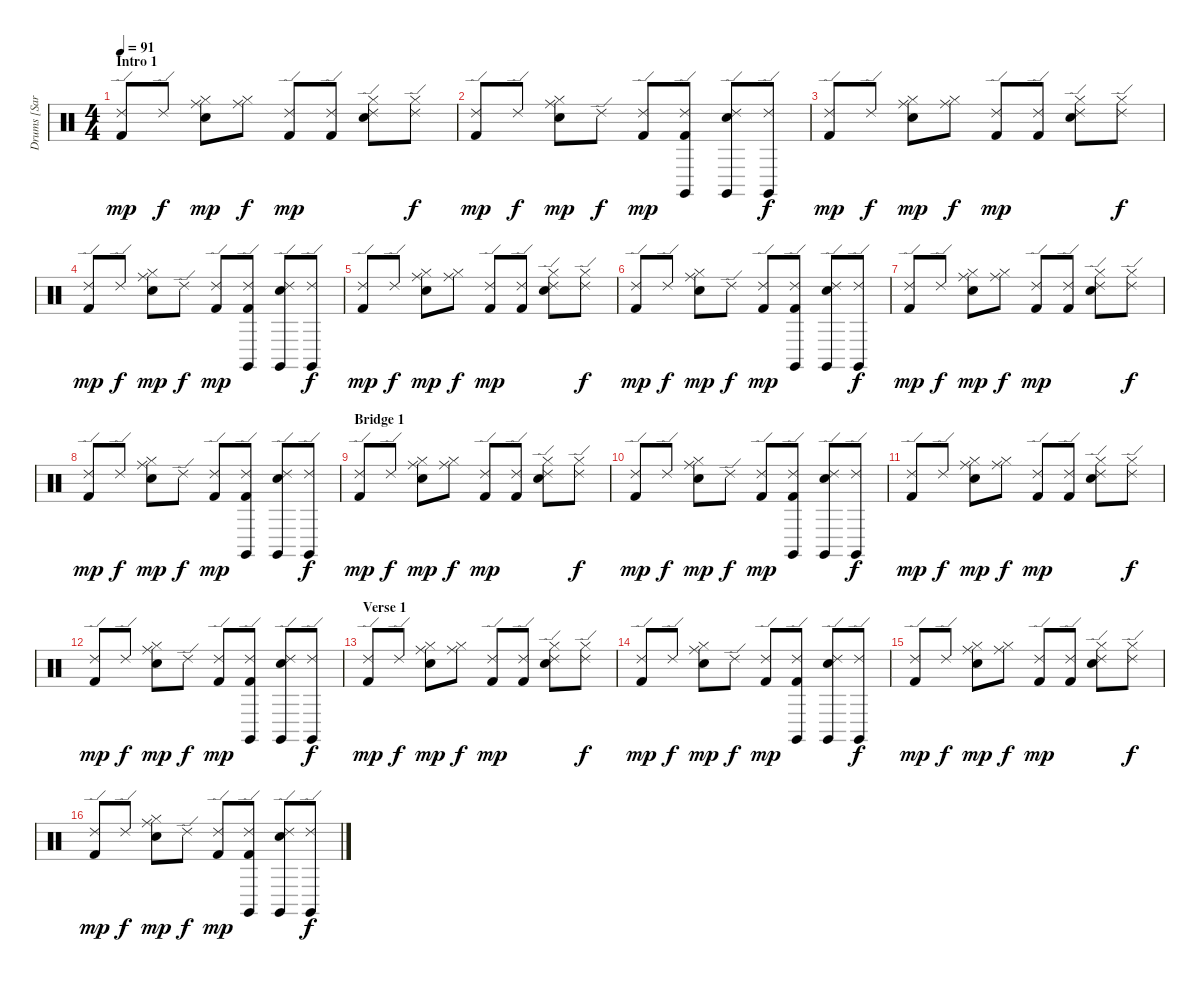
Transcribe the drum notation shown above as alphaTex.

\track ("Drums [Sara Lee Lucas]" "Drums [Sar") {instrument percussion}
\staff {score}
\articulation defaults
\ts (4 4)
\section ("" "Intro 1")
\tempo 91
\clef neutral
\ks c
("Ride (edge) 2" "Kick (hit) 2").8{dy mp} "Ride (edge) 2".8{dy f} ("Ride (middle)" "Hi-Hat (closed)" "Snare (hit) 2").8{dy mp} ("Ride (middle)" "Hi-Hat (closed)").8{dy f} ("Ride (edge) 2" "Kick (hit) 2").8{dy mp} ("Ride (edge) 2" "Kick (hit) 2").8 ("Ride (edge) 2" "Hi-Hat (closed)" "Snare (hit) 2").8 ("Ride (edge) 2" "Hi-Hat (closed)").8{dy f} |
("Ride (edge) 2" "Kick (hit) 2").8{dy mp} "Ride (edge) 2".8{dy f} ("Ride (middle)" "Hi-Hat (closed)" "Snare (hit) 2").8{dy mp} "Ride (edge) 2".8{dy f} ("Ride (edge) 2" "Kick (hit) 2").8{dy mp} ("Ride (edge) 2" "Claves (hit)" "Kick (hit) 2").8 ("Ride (edge) 2" "Claves (hit)" "Snare (hit) 2").8 ("Ride (edge) 2" "Claves (hit)").8{dy f} |
("Ride (edge) 2" "Kick (hit) 2").8{dy mp} "Ride (edge) 2".8{dy f} ("Ride (middle)" "Hi-Hat (closed)" "Snare (hit) 2").8{dy mp} ("Ride (middle)" "Hi-Hat (closed)").8{dy f} ("Ride (edge) 2" "Kick (hit) 2").8{dy mp} ("Ride (edge) 2" "Kick (hit) 2").8 ("Ride (edge) 2" "Hi-Hat (closed)" "Snare (hit) 2").8 ("Ride (edge) 2" "Hi-Hat (closed)").8{dy f} |
("Ride (edge) 2" "Kick (hit) 2").8{dy mp} "Ride (edge) 2".8{dy f} ("Ride (middle)" "Hi-Hat (closed)" "Snare (hit) 2").8{dy mp} "Ride (edge) 2".8{dy f} ("Ride (edge) 2" "Kick (hit) 2").8{dy mp} ("Ride (edge) 2" "Claves (hit)" "Kick (hit) 2").8 ("Ride (edge) 2" "Claves (hit)" "Snare (hit) 2").8 ("Ride (edge) 2" "Claves (hit)").8{dy f} |
("Ride (edge) 2" "Kick (hit) 2").8{dy mp} "Ride (edge) 2".8{dy f} ("Ride (middle)" "Hi-Hat (closed)" "Snare (hit) 2").8{dy mp} ("Ride (middle)" "Hi-Hat (closed)").8{dy f} ("Ride (edge) 2" "Kick (hit) 2").8{dy mp} ("Ride (edge) 2" "Kick (hit) 2").8 ("Ride (edge) 2" "Hi-Hat (closed)" "Snare (hit) 2").8 ("Ride (edge) 2" "Hi-Hat (closed)").8{dy f} |
("Ride (edge) 2" "Kick (hit) 2").8{dy mp} "Ride (edge) 2".8{dy f} ("Ride (middle)" "Hi-Hat (closed)" "Snare (hit) 2").8{dy mp} "Ride (edge) 2".8{dy f} ("Ride (edge) 2" "Kick (hit) 2").8{dy mp} ("Ride (edge) 2" "Claves (hit)" "Kick (hit) 2").8 ("Ride (edge) 2" "Claves (hit)" "Snare (hit) 2").8 ("Ride (edge) 2" "Claves (hit)").8{dy f} |
("Ride (edge) 2" "Kick (hit) 2").8{dy mp} "Ride (edge) 2".8{dy f} ("Ride (middle)" "Hi-Hat (closed)" "Snare (hit) 2").8{dy mp} ("Ride (middle)" "Hi-Hat (closed)").8{dy f} ("Ride (edge) 2" "Kick (hit) 2").8{dy mp} ("Ride (edge) 2" "Kick (hit) 2").8 ("Ride (edge) 2" "Hi-Hat (closed)" "Snare (hit) 2").8 ("Ride (edge) 2" "Hi-Hat (closed)").8{dy f} |
("Ride (edge) 2" "Kick (hit) 2").8{dy mp} "Ride (edge) 2".8{dy f} ("Ride (middle)" "Hi-Hat (closed)" "Snare (hit) 2").8{dy mp} "Ride (edge) 2".8{dy f} ("Ride (edge) 2" "Kick (hit) 2").8{dy mp} ("Ride (edge) 2" "Claves (hit)" "Kick (hit) 2").8 ("Ride (edge) 2" "Claves (hit)" "Snare (hit) 2").8 ("Ride (edge) 2" "Claves (hit)").8{dy f} |
\section ("" "Bridge 1")
("Ride (edge) 2" "Kick (hit) 2").8{dy mp} "Ride (edge) 2".8{dy f} ("Ride (middle)" "Hi-Hat (closed)" "Snare (hit) 2").8{dy mp} ("Ride (middle)" "Hi-Hat (closed)").8{dy f} ("Ride (edge) 2" "Kick (hit) 2").8{dy mp} ("Ride (edge) 2" "Kick (hit) 2").8 ("Ride (edge) 2" "Hi-Hat (closed)" "Snare (hit) 2").8 ("Ride (edge) 2" "Hi-Hat (closed)").8{dy f} |
("Ride (edge) 2" "Kick (hit) 2").8{dy mp} "Ride (edge) 2".8{dy f} ("Ride (middle)" "Hi-Hat (closed)" "Snare (hit) 2").8{dy mp} "Ride (edge) 2".8{dy f} ("Ride (edge) 2" "Kick (hit) 2").8{dy mp} ("Ride (edge) 2" "Claves (hit)" "Kick (hit) 2").8 ("Ride (edge) 2" "Claves (hit)" "Snare (hit) 2").8 ("Ride (edge) 2" "Claves (hit)").8{dy f} |
("Ride (edge) 2" "Kick (hit) 2").8{dy mp} "Ride (edge) 2".8{dy f} ("Ride (middle)" "Hi-Hat (closed)" "Snare (hit) 2").8{dy mp} ("Ride (middle)" "Hi-Hat (closed)").8{dy f} ("Ride (edge) 2" "Kick (hit) 2").8{dy mp} ("Ride (edge) 2" "Kick (hit) 2").8 ("Ride (edge) 2" "Hi-Hat (closed)" "Snare (hit) 2").8 ("Ride (edge) 2" "Hi-Hat (closed)").8{dy f} |
("Ride (edge) 2" "Kick (hit) 2").8{dy mp} "Ride (edge) 2".8{dy f} ("Ride (middle)" "Hi-Hat (closed)" "Snare (hit) 2").8{dy mp} "Ride (edge) 2".8{dy f} ("Ride (edge) 2" "Kick (hit) 2").8{dy mp} ("Ride (edge) 2" "Claves (hit)" "Kick (hit) 2").8 ("Ride (edge) 2" "Claves (hit)" "Snare (hit) 2").8 ("Ride (edge) 2" "Claves (hit)").8{dy f} |
\section ("" "Verse 1")
("Ride (edge) 2" "Kick (hit) 2").8{dy mp} "Ride (edge) 2".8{dy f} ("Ride (middle)" "Hi-Hat (closed)" "Snare (hit) 2").8{dy mp} ("Ride (middle)" "Hi-Hat (closed)").8{dy f} ("Ride (edge) 2" "Kick (hit) 2").8{dy mp} ("Ride (edge) 2" "Kick (hit) 2").8 ("Ride (edge) 2" "Hi-Hat (closed)" "Snare (hit) 2").8 ("Ride (edge) 2" "Hi-Hat (closed)").8{dy f} |
("Ride (edge) 2" "Kick (hit) 2").8{dy mp} "Ride (edge) 2".8{dy f} ("Ride (middle)" "Hi-Hat (closed)" "Snare (hit) 2").8{dy mp} "Ride (edge) 2".8{dy f} ("Ride (edge) 2" "Kick (hit) 2").8{dy mp} ("Ride (edge) 2" "Claves (hit)" "Kick (hit) 2").8 ("Ride (edge) 2" "Claves (hit)" "Snare (hit) 2").8 ("Ride (edge) 2" "Claves (hit)").8{dy f} |
("Ride (edge) 2" "Kick (hit) 2").8{dy mp} "Ride (edge) 2".8{dy f} ("Ride (middle)" "Hi-Hat (closed)" "Snare (hit) 2").8{dy mp} ("Ride (middle)" "Hi-Hat (closed)").8{dy f} ("Ride (edge) 2" "Kick (hit) 2").8{dy mp} ("Ride (edge) 2" "Kick (hit) 2").8 ("Ride (edge) 2" "Hi-Hat (closed)" "Snare (hit) 2").8 ("Ride (edge) 2" "Hi-Hat (closed)").8{dy f} |
("Ride (edge) 2" "Kick (hit) 2").8{dy mp} "Ride (edge) 2".8{dy f} ("Ride (middle)" "Hi-Hat (closed)" "Snare (hit) 2").8{dy mp} "Ride (edge) 2".8{dy f} ("Ride (edge) 2" "Kick (hit) 2").8{dy mp} ("Ride (edge) 2" "Claves (hit)" "Kick (hit) 2").8 ("Ride (edge) 2" "Claves (hit)" "Snare (hit) 2").8 ("Ride (edge) 2" "Claves (hit)").8{dy f}
